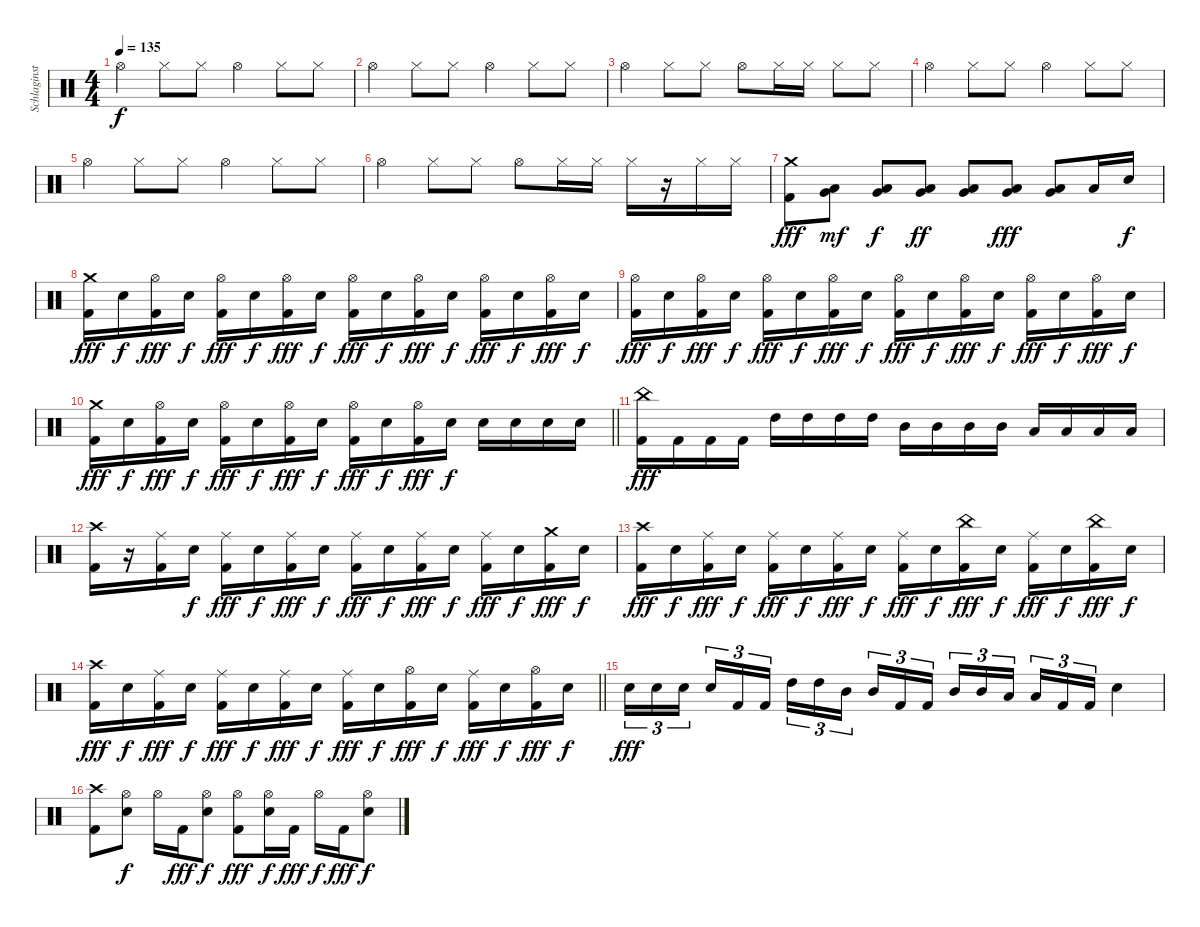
\track ("Schlaginstrumente - Auswahl" "Schlaginst") {instrument percussion}
\staff {score}
\articulation defaults
\ts (4 4)
\tempo 135
\clef neutral
\ks c "Hi-Hat (open)".4{dy f} "Hi-Hat (closed)".8 "Hi-Hat (closed)".8 "Hi-Hat (open)".4 "Hi-Hat (closed)".8 "Hi-Hat (closed)".8
|
"Hi-Hat (open)".4 "Hi-Hat (closed)".8 "Hi-Hat (closed)".8 "Hi-Hat (open)".4 "Hi-Hat (closed)".8 "Hi-Hat (closed)".8 |
"Hi-Hat (open)".4 "Hi-Hat (closed)".8 "Hi-Hat (closed)".8 "Hi-Hat (open)".8 "Hi-Hat (closed)".16 "Hi-Hat (closed)".16 "Hi-Hat (closed)".8 "Hi-Hat (closed)".8 |
"Hi-Hat (open)".4 "Hi-Hat (closed)".8 "Hi-Hat (closed)".8 "Hi-Hat (open)".4 "Hi-Hat (closed)".8 "Hi-Hat (closed)".8 |
"Hi-Hat (open)".4 "Hi-Hat (closed)".8 "Hi-Hat (closed)".8 "Hi-Hat (open)".4 "Hi-Hat (closed)".8 "Hi-Hat (closed)".8 |
"Hi-Hat (open)".4 "Hi-Hat (closed)".8 "Hi-Hat (closed)".8 "Hi-Hat (open)".8 "Hi-Hat (closed)".16 "Hi-Hat (closed)".16 "Hi-Hat (closed)".16 r.16 "Hi-Hat (closed)".16 "Hi-Hat (closed)".16 |
("Crash medium (hit)" "Kick (hit) 2").8{dy fff} ("Very Low Tom (hit)" "Low Floor Tom (hit)").8{dy mf} ("Very Low Tom (hit)" "Low Floor Tom (hit)").8{dy f} ("Very Low Tom (hit)" "Low Floor Tom (hit)").8{dy ff} ("Very Low Tom (hit)" "Low Floor Tom (hit)").8 ("Very Low Tom (hit)" "Low Floor Tom (hit)").8{dy fff} ("Very Low Tom (hit)" "Low Floor Tom (hit)").8 "Low Floor Tom (hit)".16 "Snare (hit) 2".16{dy f} |
("Crash medium (hit)" "Kick (hit) 2").16{dy fff} "Snare (hit) 2".16{dy f} ("Hi-Hat (open)" "Kick (hit) 2").16{dy fff} "Snare (hit) 2".16{dy f} ("Hi-Hat (open)" "Kick (hit) 2").16{dy fff} "Snare (hit) 2".16{dy f} ("Hi-Hat (open)" "Kick (hit) 2").16{dy fff} "Snare (hit) 2".16{dy f} ("Hi-Hat (open)" "Kick (hit) 2").16{dy fff} "Snare (hit) 2".16{dy f} ("Hi-Hat (open)" "Kick (hit) 2").16{dy fff} "Snare (hit) 2".16{dy f} ("Hi-Hat (open)" "Kick (hit) 2").16{dy fff} "Snare (hit) 2".16{dy f} ("Hi-Hat (open)" "Kick (hit) 2").16{dy fff} "Snare (hit) 2".16{dy f} |
("Hi-Hat (open)" "Kick (hit) 2").16{dy fff} "Snare (hit) 2".16{dy f} ("Hi-Hat (open)" "Kick (hit) 2").16{dy fff} "Snare (hit) 2".16{dy f} ("Hi-Hat (open)" "Kick (hit) 2").16{dy fff} "Snare (hit) 2".16{dy f} ("Hi-Hat (open)" "Kick (hit) 2").16{dy fff} "Snare (hit) 2".16{dy f} ("Hi-Hat (open)" "Kick (hit) 2").16{dy fff} "Snare (hit) 2".16{dy f} ("Hi-Hat (open)" "Kick (hit) 2").16{dy fff} "Snare (hit) 2".16{dy f} ("Hi-Hat (open)" "Kick (hit) 2").16{dy fff} "Snare (hit) 2".16{dy f} ("Hi-Hat (open)" "Kick (hit) 2").16{dy fff} "Snare (hit) 2".16{dy f} |
\barLineRight lightlight
("Crash medium (hit)" "Kick (hit) 2").16{dy fff} "Snare (hit) 2".16{dy f} ("Hi-Hat (open)" "Kick (hit) 2").16{dy fff} "Snare (hit) 2".16{dy f} ("Hi-Hat (open)" "Kick (hit) 2").16{dy fff} "Snare (hit) 2".16{dy f} ("Hi-Hat (open)" "Kick (hit) 2").16{dy fff} "Snare (hit) 2".16{dy f} ("Hi-Hat (open)" "Kick (hit) 2").16{dy fff} "Snare (hit) 2".16{dy f} ("Hi-Hat (open)" "Kick (hit) 2").16{dy fff} "Snare (hit) 2".16{dy f} "Snare (hit) 2".16 "Snare (hit) 2".16 "Snare (hit) 2".16 "Snare (hit) 2".16 |
("China (hit)" "Kick (hit) 2").16{dy fff} "Kick (hit) 2".16 "Kick (hit) 2".16 "Kick (hit) 2".16 "High Tom (hit)".16 "High Tom (hit)".16 "High Tom (hit)".16 "High Tom (hit)".16 "Mid Tom (hit)".16 "Mid Tom (hit)".16 "Mid Tom (hit)".16 "Mid Tom (hit)".16 "Low Tom (hit)".16 "Low Tom (hit)".16 "Low Tom (hit)".16 "Low Tom (hit)".16 |
("Crash high (hit)" "Kick (hit) 2").16 r.16 ("Ride (middle)" "Kick (hit) 2").16 "Snare (hit) 2".16{dy f} ("Ride (middle)" "Kick (hit) 2").16{dy fff} "Snare (hit) 2".16{dy f} ("Ride (middle)" "Kick (hit) 2").16{dy fff} "Snare (hit) 2".16{dy f} ("Ride (middle)" "Kick (hit) 2").16{dy fff} "Snare (hit) 2".16{dy f} ("Ride (middle)" "Kick (hit) 2").16{dy fff} "Snare (hit) 2".16{dy f} ("Ride (middle)" "Kick (hit) 2").16{dy fff} "Snare (hit) 2".16{dy f} ("Crash medium (hit)" "Kick (hit) 2").16{dy fff} "Snare (hit) 2".16{dy f} |
("Crash high (hit)" "Kick (hit) 2").16{dy fff} "Snare (hit) 2".16{dy f} ("Ride (middle)" "Kick (hit) 2").16{dy fff} "Snare (hit) 2".16{dy f} ("Ride (middle)" "Kick (hit) 2").16{dy fff} "Snare (hit) 2".16{dy f} ("Ride (middle)" "Kick (hit) 2").16{dy fff} "Snare (hit) 2".16{dy f} ("Ride (middle)" "Kick (hit) 2").16{dy fff} "Snare (hit) 2".16{dy f} ("China (hit)" "Kick (hit) 2").16{dy fff} "Snare (hit) 2".16{dy f} ("Ride (middle)" "Kick (hit) 2").16{dy fff} "Snare (hit) 2".16{dy f} ("China (hit)" "Kick (hit) 2").16{dy fff} "Snare (hit) 2".16{dy f} |
\barLineRight lightlight
("Crash high (hit)" "Kick (hit) 2").16{dy fff} "Snare (hit) 2".16{dy f} ("Ride (middle)" "Kick (hit) 2").16{dy fff} "Snare (hit) 2".16{dy f} ("Ride (middle)" "Kick (hit) 2").16{dy fff} "Snare (hit) 2".16{dy f} ("Ride (middle)" "Kick (hit) 2").16{dy fff} "Snare (hit) 2".16{dy f} ("Ride (middle)" "Kick (hit) 2").16{dy fff} "Snare (hit) 2".16{dy f} ("Hi-Hat (open)" "Kick (hit) 2").16{dy fff} "Snare (hit) 2".16{dy f} ("Ride (middle)" "Kick (hit) 2").16{dy fff} "Snare (hit) 2".16{dy f} ("Hi-Hat (open)" "Kick (hit) 2").16{dy fff} "Snare (hit) 2".16{dy f} |
"Snare (hit) 2".16{tu (3 2) dy fff} "Snare (hit) 2".16{tu (3 2)} "Snare (hit) 2".16{tu (3 2) beam splitsecondary} "Snare (hit) 2".16{tu (3 2)} "Kick (hit) 2".16{tu (3 2)} "Kick (hit) 2".16{tu (3 2)} "High Tom (hit)".16{tu (3 2)} "High Tom (hit)".16{tu (3 2)} "Mid Tom (hit)".16{tu (3 2) beam splitsecondary} "Mid Tom (hit)".16{tu (3 2)} "Kick (hit) 2".16{tu (3 2)} "Kick (hit) 2".16{tu (3 2)} "Mid Tom (hit)".16{tu (3 2)} "Mid Tom (hit)".16{tu (3 2)} "Low Tom (hit)".16{tu (3 2) beam splitsecondary} "Low Tom (hit)".16{tu (3 2)} "Kick (hit) 2".16{tu (3 2)} "Kick (hit) 2".16{tu (3 2)} "Snare (hit) 2".4 |
("Crash high (hit)" "Kick (hit) 2").8 ("Hi-Hat (open)" "Snare (hit) 2").8{dy f} "Hi-Hat (open)".16 "Kick (hit) 2".16{dy fff} ("Hi-Hat (open)" "Snare (hit) 2").8{dy f} ("Hi-Hat (open)" "Kick (hit) 2").8{dy fff} ("Hi-Hat (open)" "Snare (hit) 2").16{dy f} "Kick (hit) 2".16{dy fff} "Hi-Hat (open)".16{dy f} "Kick (hit) 2".16{dy fff} ("Hi-Hat (open)" "Snare (hit) 2").8{dy f}
